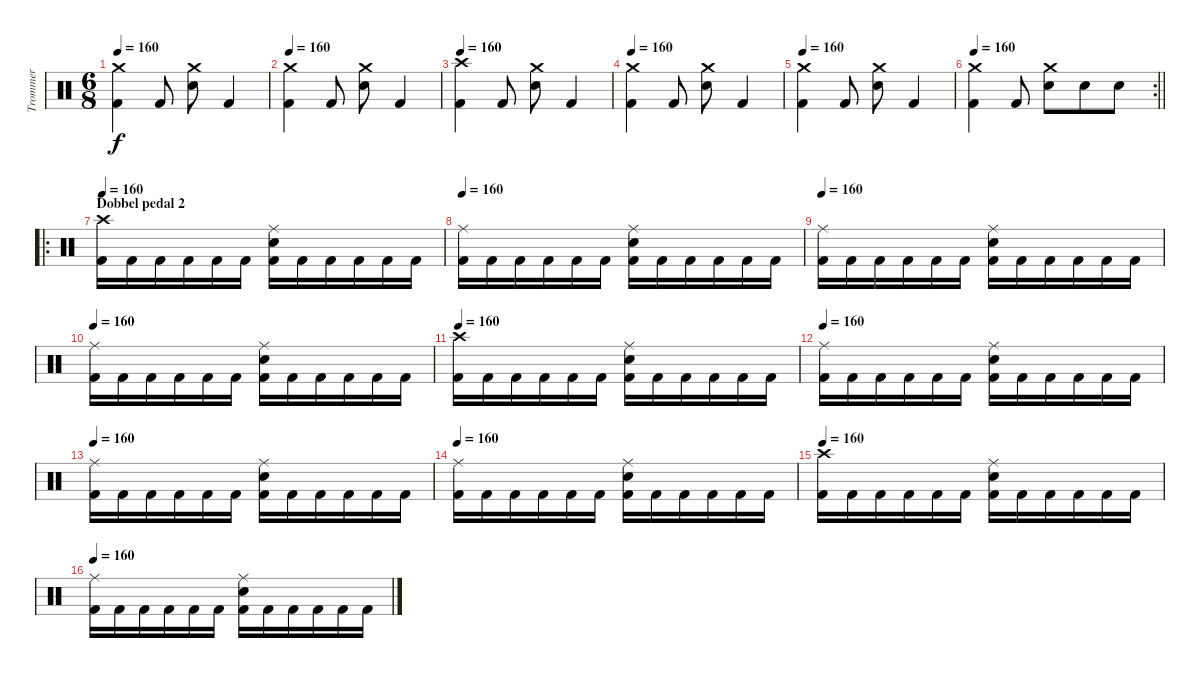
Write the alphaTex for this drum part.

\track ("Trommer" "Trommer") {instrument percussion}
\staff {score}
\articulation defaults
\ts (6 8)
\tempo 160
\clef neutral
\ks c
("Kick (hit) 2" "Crash medium (hit)").4{dy f} "Kick (hit) 2".8 ("Snare (hit) 2" "Crash medium (hit)").8 "Kick (hit) 2".4 |
\tempo 160
("Kick (hit) 2" "Crash medium (hit)").4 "Kick (hit) 2".8 ("Snare (hit) 2" "Crash medium (hit)").8 "Kick (hit) 2".4 |
\tempo 160
("Kick (hit) 2" "Crash high (hit)").4 "Kick (hit) 2".8 ("Snare (hit) 2" "Crash medium (hit)").8 "Kick (hit) 2".4 |
\tempo 160
("Kick (hit) 2" "Crash medium (hit)").4 "Kick (hit) 2".8 ("Snare (hit) 2" "Crash medium (hit)").8 "Kick (hit) 2".4 |
\tempo 160
("Kick (hit) 2" "Crash medium (hit)").4 "Kick (hit) 2".8 ("Snare (hit) 2" "Crash medium (hit)").8 "Kick (hit) 2".4 |
\rc 2
\tempo 160
\barLineRight lightlight
("Kick (hit) 2" "Crash medium (hit)").4 "Kick (hit) 2".8 ("Snare (hit) 2" "Crash medium (hit)").8 "Snare (hit) 2".8 "Snare (hit) 2".8 |
\ro
\section ("" "Dobbel pedal 2")
\tempo 160
("Kick (hit) 2" "Crash high (hit)").16 "Kick (hit) 2".16 "Kick (hit) 2".16 "Kick (hit) 2".16 "Kick (hit) 2".16 "Kick (hit) 2".16 ("Kick (hit) 2" "Snare (hit) 2" "Ride (middle)").16 "Kick (hit) 2".16 "Kick (hit) 2".16 "Kick (hit) 2".16 "Kick (hit) 2".16 "Kick (hit) 2".16 |
\tempo 160
("Kick (hit) 2" "Ride (middle)").16 "Kick (hit) 2".16 "Kick (hit) 2".16 "Kick (hit) 2".16 "Kick (hit) 2".16 "Kick (hit) 2".16 ("Kick (hit) 2" "Snare (hit) 2" "Ride (middle)").16 "Kick (hit) 2".16 "Kick (hit) 2".16 "Kick (hit) 2".16 "Kick (hit) 2".16 "Kick (hit) 2".16 |
\tempo 160
("Kick (hit) 2" "Ride (middle)").16 "Kick (hit) 2".16 "Kick (hit) 2".16 "Kick (hit) 2".16 "Kick (hit) 2".16 "Kick (hit) 2".16 ("Kick (hit) 2" "Snare (hit) 2" "Ride (middle)").16 "Kick (hit) 2".16 "Kick (hit) 2".16 "Kick (hit) 2".16 "Kick (hit) 2".16 "Kick (hit) 2".16 |
\tempo 160
("Kick (hit) 2" "Ride (middle)").16 "Kick (hit) 2".16 "Kick (hit) 2".16 "Kick (hit) 2".16 "Kick (hit) 2".16 "Kick (hit) 2".16 ("Kick (hit) 2" "Snare (hit) 2" "Ride (middle)").16 "Kick (hit) 2".16 "Kick (hit) 2".16 "Kick (hit) 2".16 "Kick (hit) 2".16 "Kick (hit) 2".16 |
\tempo 160
("Kick (hit) 2" "Crash high (hit)").16 "Kick (hit) 2".16 "Kick (hit) 2".16 "Kick (hit) 2".16 "Kick (hit) 2".16 "Kick (hit) 2".16 ("Kick (hit) 2" "Snare (hit) 2" "Ride (middle)").16 "Kick (hit) 2".16 "Kick (hit) 2".16 "Kick (hit) 2".16 "Kick (hit) 2".16 "Kick (hit) 2".16 |
\tempo 160
("Kick (hit) 2" "Ride (middle)").16 "Kick (hit) 2".16 "Kick (hit) 2".16 "Kick (hit) 2".16 "Kick (hit) 2".16 "Kick (hit) 2".16 ("Kick (hit) 2" "Snare (hit) 2" "Ride (middle)").16 "Kick (hit) 2".16 "Kick (hit) 2".16 "Kick (hit) 2".16 "Kick (hit) 2".16 "Kick (hit) 2".16 |
\tempo 160
("Kick (hit) 2" "Ride (middle)").16 "Kick (hit) 2".16 "Kick (hit) 2".16 "Kick (hit) 2".16 "Kick (hit) 2".16 "Kick (hit) 2".16 ("Kick (hit) 2" "Snare (hit) 2" "Ride (middle)").16 "Kick (hit) 2".16 "Kick (hit) 2".16 "Kick (hit) 2".16 "Kick (hit) 2".16 "Kick (hit) 2".16 |
\tempo 160
("Kick (hit) 2" "Ride (middle)").16 "Kick (hit) 2".16 "Kick (hit) 2".16 "Kick (hit) 2".16 "Kick (hit) 2".16 "Kick (hit) 2".16 ("Kick (hit) 2" "Snare (hit) 2" "Ride (middle)").16 "Kick (hit) 2".16 "Kick (hit) 2".16 "Kick (hit) 2".16 "Kick (hit) 2".16 "Kick (hit) 2".16 |
\tempo 160
("Kick (hit) 2" "Crash high (hit)").16 "Kick (hit) 2".16 "Kick (hit) 2".16 "Kick (hit) 2".16 "Kick (hit) 2".16 "Kick (hit) 2".16 ("Kick (hit) 2" "Snare (hit) 2" "Ride (middle)").16 "Kick (hit) 2".16 "Kick (hit) 2".16 "Kick (hit) 2".16 "Kick (hit) 2".16 "Kick (hit) 2".16 |
\tempo 160
("Kick (hit) 2" "Ride (middle)").16 "Kick (hit) 2".16 "Kick (hit) 2".16 "Kick (hit) 2".16 "Kick (hit) 2".16 "Kick (hit) 2".16 ("Kick (hit) 2" "Snare (hit) 2" "Ride (middle)").16 "Kick (hit) 2".16 "Kick (hit) 2".16 "Kick (hit) 2".16 "Kick (hit) 2".16 "Kick (hit) 2".16
